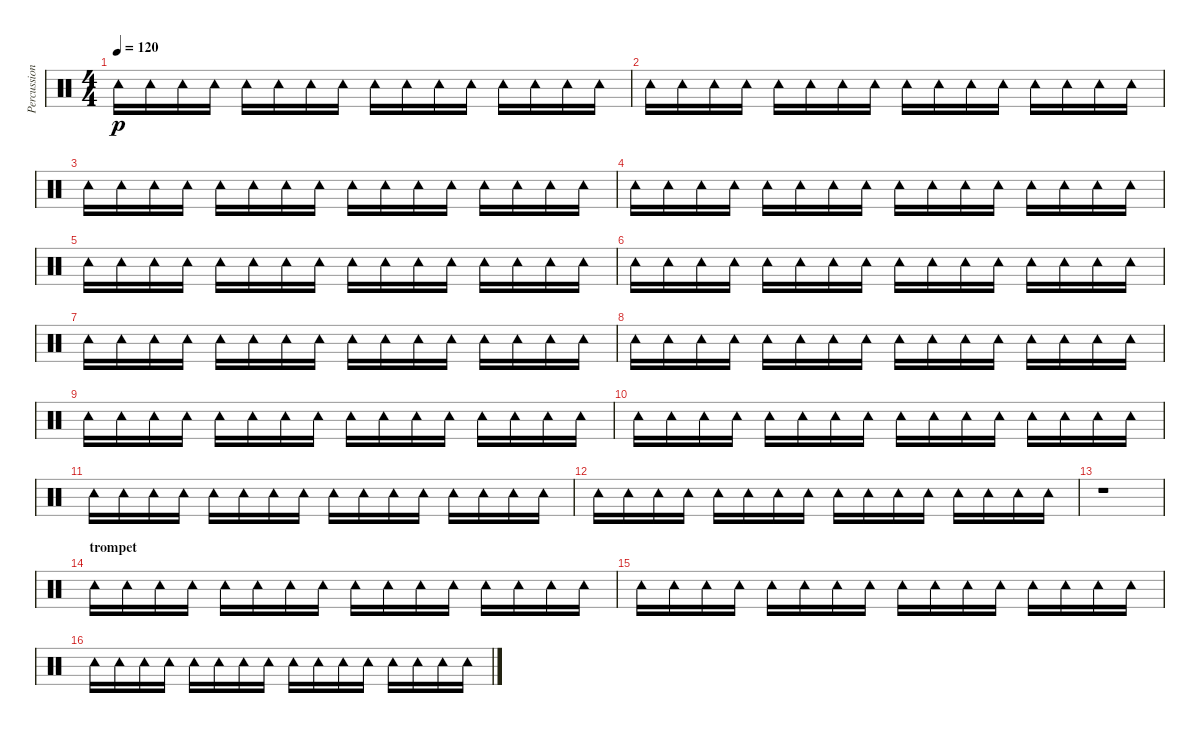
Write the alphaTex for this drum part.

\track ("Percussions" "Percussion") {instrument percussion}
\staff {score}
\articulation defaults
\ts (4 4)
\tempo 120
\clef neutral
\ks c "Tambourine (hit)".16{dy p} "Tambourine (hit)".16 "Tambourine (hit)".16 "Tambourine (hit)".16 "Tambourine (hit)".16 "Tambourine (hit)".16 "Tambourine (hit)".16 "Tambourine (hit)".16 "Tambourine (hit)".16 "Tambourine (hit)".16 "Tambourine (hit)".16 "Tambourine (hit)".16 "Tambourine (hit)".16 "Tambourine (hit)".16 "Tambourine (hit)".16 "Tambourine (hit)".16
|
"Tambourine (hit)".16 "Tambourine (hit)".16 "Tambourine (hit)".16 "Tambourine (hit)".16 "Tambourine (hit)".16 "Tambourine (hit)".16 "Tambourine (hit)".16 "Tambourine (hit)".16 "Tambourine (hit)".16 "Tambourine (hit)".16 "Tambourine (hit)".16 "Tambourine (hit)".16 "Tambourine (hit)".16 "Tambourine (hit)".16 "Tambourine (hit)".16 "Tambourine (hit)".16 |
"Tambourine (hit)".16 "Tambourine (hit)".16 "Tambourine (hit)".16 "Tambourine (hit)".16 "Tambourine (hit)".16 "Tambourine (hit)".16 "Tambourine (hit)".16 "Tambourine (hit)".16 "Tambourine (hit)".16 "Tambourine (hit)".16 "Tambourine (hit)".16 "Tambourine (hit)".16 "Tambourine (hit)".16 "Tambourine (hit)".16 "Tambourine (hit)".16 "Tambourine (hit)".16 |
"Tambourine (hit)".16 "Tambourine (hit)".16 "Tambourine (hit)".16 "Tambourine (hit)".16 "Tambourine (hit)".16 "Tambourine (hit)".16 "Tambourine (hit)".16 "Tambourine (hit)".16 "Tambourine (hit)".16 "Tambourine (hit)".16 "Tambourine (hit)".16 "Tambourine (hit)".16 "Tambourine (hit)".16 "Tambourine (hit)".16 "Tambourine (hit)".16 "Tambourine (hit)".16 |
"Tambourine (hit)".16 "Tambourine (hit)".16 "Tambourine (hit)".16 "Tambourine (hit)".16 "Tambourine (hit)".16 "Tambourine (hit)".16 "Tambourine (hit)".16 "Tambourine (hit)".16 "Tambourine (hit)".16 "Tambourine (hit)".16 "Tambourine (hit)".16 "Tambourine (hit)".16 "Tambourine (hit)".16 "Tambourine (hit)".16 "Tambourine (hit)".16 "Tambourine (hit)".16 |
"Tambourine (hit)".16 "Tambourine (hit)".16 "Tambourine (hit)".16 "Tambourine (hit)".16 "Tambourine (hit)".16 "Tambourine (hit)".16 "Tambourine (hit)".16 "Tambourine (hit)".16 "Tambourine (hit)".16 "Tambourine (hit)".16 "Tambourine (hit)".16 "Tambourine (hit)".16 "Tambourine (hit)".16 "Tambourine (hit)".16 "Tambourine (hit)".16 "Tambourine (hit)".16 |
"Tambourine (hit)".16 "Tambourine (hit)".16 "Tambourine (hit)".16 "Tambourine (hit)".16 "Tambourine (hit)".16 "Tambourine (hit)".16 "Tambourine (hit)".16 "Tambourine (hit)".16 "Tambourine (hit)".16 "Tambourine (hit)".16 "Tambourine (hit)".16 "Tambourine (hit)".16 "Tambourine (hit)".16 "Tambourine (hit)".16 "Tambourine (hit)".16 "Tambourine (hit)".16 |
"Tambourine (hit)".16 "Tambourine (hit)".16 "Tambourine (hit)".16 "Tambourine (hit)".16 "Tambourine (hit)".16 "Tambourine (hit)".16 "Tambourine (hit)".16 "Tambourine (hit)".16 "Tambourine (hit)".16 "Tambourine (hit)".16 "Tambourine (hit)".16 "Tambourine (hit)".16 "Tambourine (hit)".16 "Tambourine (hit)".16 "Tambourine (hit)".16 "Tambourine (hit)".16 |
"Tambourine (hit)".16 "Tambourine (hit)".16 "Tambourine (hit)".16 "Tambourine (hit)".16 "Tambourine (hit)".16 "Tambourine (hit)".16 "Tambourine (hit)".16 "Tambourine (hit)".16 "Tambourine (hit)".16 "Tambourine (hit)".16 "Tambourine (hit)".16 "Tambourine (hit)".16 "Tambourine (hit)".16 "Tambourine (hit)".16 "Tambourine (hit)".16 "Tambourine (hit)".16 |
"Tambourine (hit)".16 "Tambourine (hit)".16 "Tambourine (hit)".16 "Tambourine (hit)".16 "Tambourine (hit)".16 "Tambourine (hit)".16 "Tambourine (hit)".16 "Tambourine (hit)".16 "Tambourine (hit)".16 "Tambourine (hit)".16 "Tambourine (hit)".16 "Tambourine (hit)".16 "Tambourine (hit)".16 "Tambourine (hit)".16 "Tambourine (hit)".16 "Tambourine (hit)".16 |
"Tambourine (hit)".16 "Tambourine (hit)".16 "Tambourine (hit)".16 "Tambourine (hit)".16 "Tambourine (hit)".16 "Tambourine (hit)".16 "Tambourine (hit)".16 "Tambourine (hit)".16 "Tambourine (hit)".16 "Tambourine (hit)".16 "Tambourine (hit)".16 "Tambourine (hit)".16 "Tambourine (hit)".16 "Tambourine (hit)".16 "Tambourine (hit)".16 "Tambourine (hit)".16 |
"Tambourine (hit)".16 "Tambourine (hit)".16 "Tambourine (hit)".16 "Tambourine (hit)".16 "Tambourine (hit)".16 "Tambourine (hit)".16 "Tambourine (hit)".16 "Tambourine (hit)".16 "Tambourine (hit)".16 "Tambourine (hit)".16 "Tambourine (hit)".16 "Tambourine (hit)".16 "Tambourine (hit)".16 "Tambourine (hit)".16 "Tambourine (hit)".16 "Tambourine (hit)".16 |
r.1 |
\section ("" "trompet")
"Tambourine (hit)".16 "Tambourine (hit)".16 "Tambourine (hit)".16 "Tambourine (hit)".16 "Tambourine (hit)".16 "Tambourine (hit)".16 "Tambourine (hit)".16 "Tambourine (hit)".16 "Tambourine (hit)".16 "Tambourine (hit)".16 "Tambourine (hit)".16 "Tambourine (hit)".16 "Tambourine (hit)".16 "Tambourine (hit)".16 "Tambourine (hit)".16 "Tambourine (hit)".16 |
"Tambourine (hit)".16 "Tambourine (hit)".16 "Tambourine (hit)".16 "Tambourine (hit)".16 "Tambourine (hit)".16 "Tambourine (hit)".16 "Tambourine (hit)".16 "Tambourine (hit)".16 "Tambourine (hit)".16 "Tambourine (hit)".16 "Tambourine (hit)".16 "Tambourine (hit)".16 "Tambourine (hit)".16 "Tambourine (hit)".16 "Tambourine (hit)".16 "Tambourine (hit)".16 |
"Tambourine (hit)".16 "Tambourine (hit)".16 "Tambourine (hit)".16 "Tambourine (hit)".16 "Tambourine (hit)".16 "Tambourine (hit)".16 "Tambourine (hit)".16 "Tambourine (hit)".16 "Tambourine (hit)".16 "Tambourine (hit)".16 "Tambourine (hit)".16 "Tambourine (hit)".16 "Tambourine (hit)".16 "Tambourine (hit)".16 "Tambourine (hit)".16 "Tambourine (hit)".16
